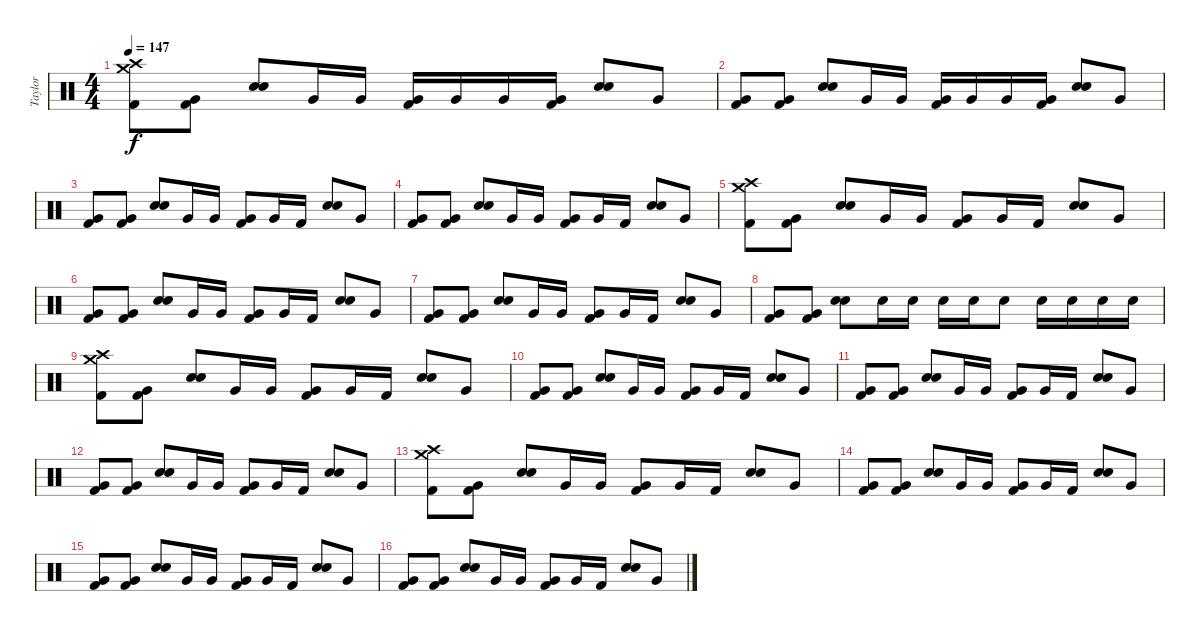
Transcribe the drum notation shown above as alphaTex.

\track ("Taylor" "Taylor") {instrument percussion}
\staff {score}
\articulation defaults
\ts (4 4)
\tempo 147
\clef neutral
\ks c
("Crash high (hit)" "Crash medium (hit)" "Kick (hit) 2").8{dy f} ("Very Low Tom (hit)" "Kick (hit) 2").8 ("Electric Snare (hit)" "Electric Snare (hit)").8{bu 240} "Very Low Tom (hit)".16 "Very Low Tom (hit)".16 ("Very Low Tom (hit)" "Kick (hit) 2").16 "Very Low Tom (hit)".16 "Very Low Tom (hit)".16 ("Very Low Tom (hit)" "Kick (hit) 2").16 ("Electric Snare (hit)" "Electric Snare (hit)").8{bu 240} "Very Low Tom (hit)".8 |
("Very Low Tom (hit)" "Kick (hit) 2").8 ("Very Low Tom (hit)" "Kick (hit) 2").8 ("Electric Snare (hit)" "Electric Snare (hit)").8{bu 240} "Very Low Tom (hit)".16 "Very Low Tom (hit)".16 ("Very Low Tom (hit)" "Kick (hit) 2").16 "Very Low Tom (hit)".16 "Very Low Tom (hit)".16 ("Very Low Tom (hit)" "Kick (hit) 2").16 ("Electric Snare (hit)" "Electric Snare (hit)").8{bu 240} "Very Low Tom (hit)".8 |
("Very Low Tom (hit)" "Kick (hit) 2").8 ("Very Low Tom (hit)" "Kick (hit) 2").8 ("Electric Snare (hit)" "Electric Snare (hit)").8{bu 240} "Very Low Tom (hit)".16 "Very Low Tom (hit)".16 ("Very Low Tom (hit)" "Kick (hit) 2").8 "Very Low Tom (hit)".16 "Kick (hit) 2".16 ("Electric Snare (hit)" "Electric Snare (hit)").8{bu 240} "Very Low Tom (hit)".8 |
("Very Low Tom (hit)" "Kick (hit) 2").8 ("Very Low Tom (hit)" "Kick (hit) 2").8 ("Electric Snare (hit)" "Electric Snare (hit)").8{bu 240} "Very Low Tom (hit)".16 "Very Low Tom (hit)".16 ("Very Low Tom (hit)" "Kick (hit) 2").8 "Very Low Tom (hit)".16 "Kick (hit) 2".16 ("Electric Snare (hit)" "Electric Snare (hit)").8{bu 240} "Very Low Tom (hit)".8 |
("Crash high (hit)" "Crash medium (hit)" "Kick (hit) 2").8 ("Very Low Tom (hit)" "Kick (hit) 2").8 ("Electric Snare (hit)" "Electric Snare (hit)").8{bu 240} "Very Low Tom (hit)".16 "Very Low Tom (hit)".16 ("Very Low Tom (hit)" "Kick (hit) 2").8 "Very Low Tom (hit)".16 "Kick (hit) 2".16 ("Electric Snare (hit)" "Electric Snare (hit)").8{bu 240} "Very Low Tom (hit)".8 |
("Very Low Tom (hit)" "Kick (hit) 2").8 ("Very Low Tom (hit)" "Kick (hit) 2").8 ("Electric Snare (hit)" "Electric Snare (hit)").8{bu 240} "Very Low Tom (hit)".16 "Very Low Tom (hit)".16 ("Very Low Tom (hit)" "Kick (hit) 2").8 "Very Low Tom (hit)".16 "Kick (hit) 2".16 ("Electric Snare (hit)" "Electric Snare (hit)").8{bu 240} "Very Low Tom (hit)".8 |
("Very Low Tom (hit)" "Kick (hit) 2").8 ("Very Low Tom (hit)" "Kick (hit) 2").8 ("Electric Snare (hit)" "Electric Snare (hit)").8{bu 240} "Very Low Tom (hit)".16 "Very Low Tom (hit)".16 ("Very Low Tom (hit)" "Kick (hit) 2").8 "Very Low Tom (hit)".16 "Kick (hit) 2".16 ("Electric Snare (hit)" "Electric Snare (hit)").8{bu 240} "Very Low Tom (hit)".8 |
("Very Low Tom (hit)" "Kick (hit) 2").8 ("Very Low Tom (hit)" "Kick (hit) 2").8 ("Electric Snare (hit)" "Electric Snare (hit)").8{bu 240} "Electric Snare (hit)".16 "Electric Snare (hit)".16 "Electric Snare (hit)".16 "Electric Snare (hit)".16 "Electric Snare (hit)".8 "Electric Snare (hit)".16 "Electric Snare (hit)".16 "Electric Snare (hit)".16 "Electric Snare (hit)".16 |
("Crash high (hit)" "Crash medium (hit)" "Kick (hit) 2").8 ("Very Low Tom (hit)" "Kick (hit) 2").8 ("Electric Snare (hit)" "Electric Snare (hit)").8{bu 240} "Very Low Tom (hit)".16 "Very Low Tom (hit)".16 ("Very Low Tom (hit)" "Kick (hit) 2").8 "Very Low Tom (hit)".16 "Kick (hit) 2".16 ("Electric Snare (hit)" "Electric Snare (hit)").8{bu 240} "Very Low Tom (hit)".8 |
("Very Low Tom (hit)" "Kick (hit) 2").8 ("Very Low Tom (hit)" "Kick (hit) 2").8 ("Electric Snare (hit)" "Electric Snare (hit)").8{bu 240} "Very Low Tom (hit)".16 "Very Low Tom (hit)".16 ("Very Low Tom (hit)" "Kick (hit) 2").8 "Very Low Tom (hit)".16 "Kick (hit) 2".16 ("Electric Snare (hit)" "Electric Snare (hit)").8{bu 240} "Very Low Tom (hit)".8 |
("Very Low Tom (hit)" "Kick (hit) 2").8 ("Very Low Tom (hit)" "Kick (hit) 2").8 ("Electric Snare (hit)" "Electric Snare (hit)").8{bu 240} "Very Low Tom (hit)".16 "Very Low Tom (hit)".16 ("Very Low Tom (hit)" "Kick (hit) 2").8 "Very Low Tom (hit)".16 "Kick (hit) 2".16 ("Electric Snare (hit)" "Electric Snare (hit)").8{bu 240} "Very Low Tom (hit)".8 |
("Very Low Tom (hit)" "Kick (hit) 2").8 ("Very Low Tom (hit)" "Kick (hit) 2").8 ("Electric Snare (hit)" "Electric Snare (hit)").8{bu 240} "Very Low Tom (hit)".16 "Very Low Tom (hit)".16 ("Very Low Tom (hit)" "Kick (hit) 2").8 "Very Low Tom (hit)".16 "Kick (hit) 2".16 ("Electric Snare (hit)" "Electric Snare (hit)").8{bu 240} "Very Low Tom (hit)".8 |
("Crash high (hit)" "Crash medium (hit)" "Kick (hit) 2").8 ("Very Low Tom (hit)" "Kick (hit) 2").8 ("Electric Snare (hit)" "Electric Snare (hit)").8{bu 240} "Very Low Tom (hit)".16 "Very Low Tom (hit)".16 ("Very Low Tom (hit)" "Kick (hit) 2").8 "Very Low Tom (hit)".16 "Kick (hit) 2".16 ("Electric Snare (hit)" "Electric Snare (hit)").8{bu 240} "Very Low Tom (hit)".8 |
("Very Low Tom (hit)" "Kick (hit) 2").8 ("Very Low Tom (hit)" "Kick (hit) 2").8 ("Electric Snare (hit)" "Electric Snare (hit)").8{bu 240} "Very Low Tom (hit)".16 "Very Low Tom (hit)".16 ("Very Low Tom (hit)" "Kick (hit) 2").8 "Very Low Tom (hit)".16 "Kick (hit) 2".16 ("Electric Snare (hit)" "Electric Snare (hit)").8{bu 240} "Very Low Tom (hit)".8 |
("Very Low Tom (hit)" "Kick (hit) 2").8 ("Very Low Tom (hit)" "Kick (hit) 2").8 ("Electric Snare (hit)" "Electric Snare (hit)").8{bu 240} "Very Low Tom (hit)".16 "Very Low Tom (hit)".16 ("Very Low Tom (hit)" "Kick (hit) 2").8 "Very Low Tom (hit)".16 "Kick (hit) 2".16 ("Electric Snare (hit)" "Electric Snare (hit)").8{bu 240} "Very Low Tom (hit)".8 |
("Very Low Tom (hit)" "Kick (hit) 2").8 ("Very Low Tom (hit)" "Kick (hit) 2").8 ("Electric Snare (hit)" "Electric Snare (hit)").8{bu 240} "Very Low Tom (hit)".16 "Very Low Tom (hit)".16 ("Very Low Tom (hit)" "Kick (hit) 2").8 "Very Low Tom (hit)".16 "Kick (hit) 2".16 ("Electric Snare (hit)" "Electric Snare (hit)").8{bu 240} "Very Low Tom (hit)".8
